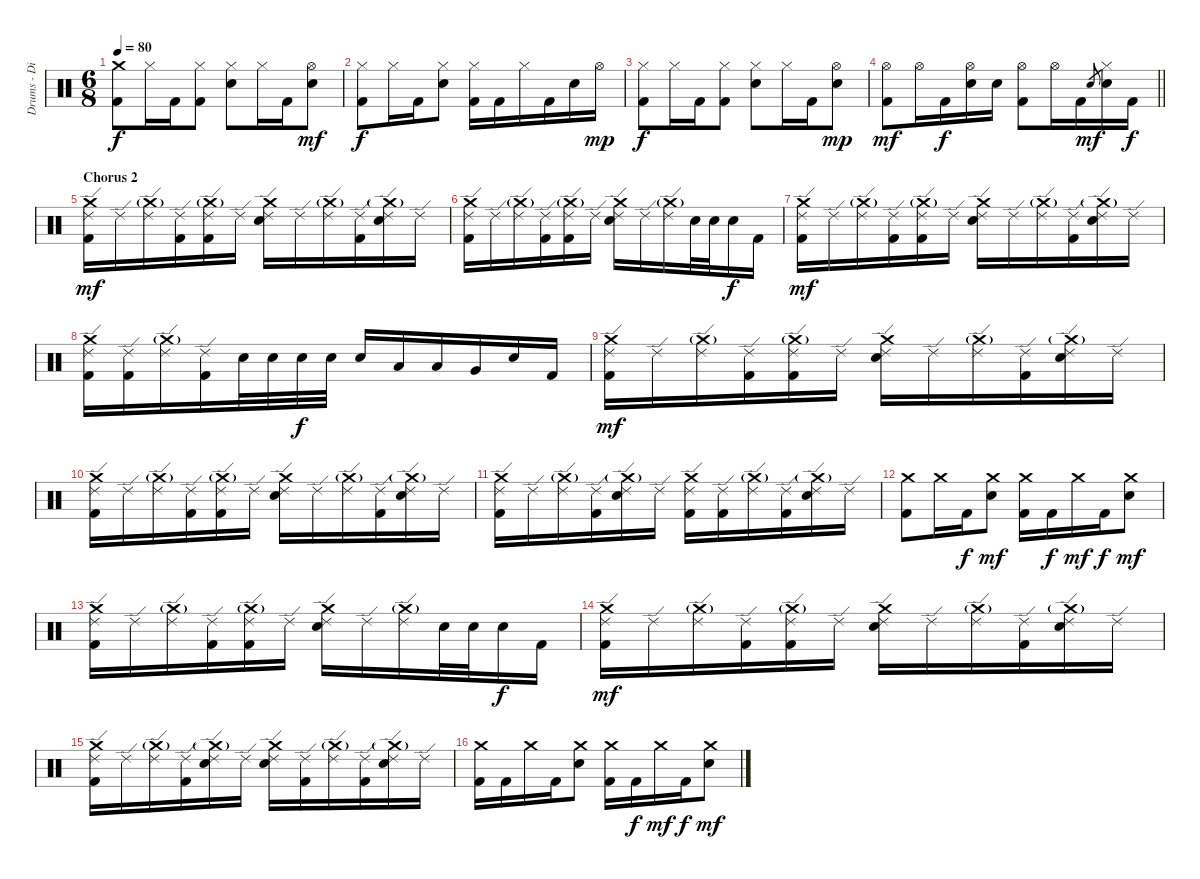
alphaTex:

\track ("Drums - Dino Campanella" "Drums - Di") {instrument percussion}
\staff {score}
\articulation defaults
\ts (6 8)
\tempo 80
\clef neutral
\ks c
("Crash medium (hit)" "Kick (hit) 2").8{dy f} "Hi-Hat (closed)".16 "Kick (hit) 2".16 ("Hi-Hat (closed)" "Kick (hit) 2").8 ("Hi-Hat (closed)" "Electric Snare (hit)").8 "Hi-Hat (closed)".16 "Kick (hit) 2".16 ("Hi-Hat (open)" "Electric Snare (hit)").8{dy mf} |
("Hi-Hat (closed)" "Kick (hit) 2").8{dy f} "Hi-Hat (closed)".16 "Kick (hit) 2".16 ("Hi-Hat (closed)" "Electric Snare (hit)").8 ("Hi-Hat (closed)" "Kick (hit) 2").16 "Kick (hit) 2".16 "Hi-Hat (closed)".16 "Kick (hit) 2".16 "Electric Snare (hit)".16 "Hi-Hat (open)".16{dy mp} |
("Hi-Hat (closed)" "Kick (hit) 2").8{dy f} "Hi-Hat (closed)".16 "Kick (hit) 2".16 ("Hi-Hat (closed)" "Kick (hit) 2").8 ("Hi-Hat (closed)" "Electric Snare (hit)").8 "Hi-Hat (closed)".16 "Kick (hit) 2".16 ("Hi-Hat (open)" "Electric Snare (hit)").8{dy mp} |
\barLineRight lightlight
("Hi-Hat (open)" "Kick (hit) 2").8{dy mf} "Hi-Hat (open)".16 "Kick (hit) 2".16{dy f} ("Hi-Hat (open)" "Electric Snare (hit)").16 "Electric Snare (hit)".16 ("Hi-Hat (open)" "Kick (hit) 2").8 "Hi-Hat (open)".16 "Kick (hit) 2".16 "Electric Snare (hit)".8{gr dy mf} ("Hi-Hat (closed)" "Electric Snare (hit)").16 "Kick (hit) 2".16{dy f} |
\section ("" "Chorus 2")
("Crash medium (hit)" "Ride (edge) 2" "Kick (hit) 2").16{dy mf} "Ride (edge) 2".16 ("Crash medium (hit)"{g} "Ride (edge) 2").16 ("Ride (edge) 2" "Kick (hit) 2").16 ("Crash medium (hit)"{g} "Ride (edge) 2" "Kick (hit) 2").16 "Ride (edge) 2".16 ("Crash medium (hit)" "Ride (edge) 2" "Electric Snare (hit)").16 "Ride (edge) 2".16 ("Crash medium (hit)"{g} "Ride (edge) 2").16 ("Ride (edge) 2" "Kick (hit) 2").16 ("Crash medium (hit)"{g} "Ride (edge) 2" "Electric Snare (hit)").16 "Ride (edge) 2".16 |
("Crash medium (hit)" "Ride (edge) 2" "Kick (hit) 2").16 "Ride (edge) 2".16 ("Crash medium (hit)"{g} "Ride (edge) 2").16 ("Ride (edge) 2" "Kick (hit) 2").16 ("Crash medium (hit)"{g} "Ride (edge) 2" "Kick (hit) 2").16 "Ride (edge) 2".16 ("Crash medium (hit)" "Ride (edge) 2" "Electric Snare (hit)").16 "Ride (edge) 2".16 ("Crash medium (hit)"{g} "Ride (edge) 2").16 "Electric Snare (hit)".32 "Electric Snare (hit)".32 "Electric Snare (hit)".16{dy f} "Kick (hit) 2".16 |
("Crash medium (hit)" "Ride (edge) 2" "Kick (hit) 2").16{dy mf} "Ride (edge) 2".16 ("Crash medium (hit)"{g} "Ride (edge) 2").16 ("Ride (edge) 2" "Kick (hit) 2").16 ("Crash medium (hit)"{g} "Ride (edge) 2" "Kick (hit) 2").16 "Ride (edge) 2".16 ("Crash medium (hit)" "Ride (edge) 2" "Electric Snare (hit)").16 "Ride (edge) 2".16 ("Crash medium (hit)"{g} "Ride (edge) 2").16 ("Ride (edge) 2" "Kick (hit) 2").16 ("Crash medium (hit)"{g} "Ride (edge) 2" "Electric Snare (hit)").16 "Ride (edge) 2".16 |
("Crash medium (hit)" "Ride (edge) 2" "Kick (hit) 2").16 ("Ride (edge) 2" "Kick (hit) 2").16 ("Crash medium (hit)"{g} "Ride (edge) 2").16 ("Ride (edge) 2" "Kick (hit) 2").16 "Electric Snare (hit)".32 "Electric Snare (hit)".32 "Electric Snare (hit)".32{dy f} "Electric Snare (hit)".32 "Electric Snare (hit)".16 "Low Tom (hit)".16 "Low Tom (hit)".16 "Very Low Tom (hit)".16 "Electric Snare (hit)".16 "Kick (hit) 2".16 |
("Crash medium (hit)" "Ride (edge) 2" "Kick (hit) 2").16{dy mf} "Ride (edge) 2".16 ("Crash medium (hit)"{g} "Ride (edge) 2").16 ("Ride (edge) 2" "Kick (hit) 2").16 ("Crash medium (hit)"{g} "Ride (edge) 2" "Kick (hit) 2").16 "Ride (edge) 2".16 ("Crash medium (hit)" "Ride (edge) 2" "Electric Snare (hit)").16 "Ride (edge) 2".16 ("Crash medium (hit)"{g} "Ride (edge) 2").16 ("Ride (edge) 2" "Kick (hit) 2").16 ("Crash medium (hit)"{g} "Ride (edge) 2" "Electric Snare (hit)").16 "Ride (edge) 2".16 |
("Crash medium (hit)" "Ride (edge) 2" "Kick (hit) 2").16 "Ride (edge) 2".16 ("Crash medium (hit)"{g} "Ride (edge) 2").16 ("Ride (edge) 2" "Kick (hit) 2").16 ("Crash medium (hit)"{g} "Ride (edge) 2" "Kick (hit) 2").16 "Ride (edge) 2".16 ("Crash medium (hit)" "Ride (edge) 2" "Electric Snare (hit)").16 "Ride (edge) 2".16 ("Crash medium (hit)"{g} "Ride (edge) 2").16 ("Ride (edge) 2" "Kick (hit) 2").16 ("Crash medium (hit)"{g} "Ride (edge) 2" "Electric Snare (hit)").16 "Ride (edge) 2".16 |
("Crash medium (hit)" "Ride (edge) 2" "Kick (hit) 2").16 "Ride (edge) 2".16 ("Crash medium (hit)"{g} "Ride (edge) 2").16 ("Ride (edge) 2" "Kick (hit) 2").16 ("Crash medium (hit)"{g} "Ride (edge) 2" "Electric Snare (hit)").16 "Ride (edge) 2".16 ("Crash medium (hit)" "Ride (edge) 2" "Kick (hit) 2").16 ("Ride (edge) 2" "Kick (hit) 2").16 ("Crash medium (hit)"{g} "Ride (edge) 2").16 ("Ride (edge) 2" "Kick (hit) 2").16 ("Crash medium (hit)"{g} "Ride (edge) 2" "Electric Snare (hit)").16 "Ride (edge) 2".16 |
("Crash medium (hit)" "Kick (hit) 2").8 "Crash medium (hit)".16 "Kick (hit) 2".16{dy f} ("Crash medium (hit)" "Electric Snare (hit)").8{dy mf} ("Crash medium (hit)" "Kick (hit) 2").16 "Kick (hit) 2".16{dy f} "Crash medium (hit)".16{dy mf} "Kick (hit) 2".16{dy f} ("Crash medium (hit)" "Electric Snare (hit)").8{dy mf} |
("Crash medium (hit)" "Ride (edge) 2" "Kick (hit) 2").16 "Ride (edge) 2".16 ("Crash medium (hit)"{g} "Ride (edge) 2").16 ("Ride (edge) 2" "Kick (hit) 2").16 ("Crash medium (hit)"{g} "Ride (edge) 2" "Kick (hit) 2").16 "Ride (edge) 2".16 ("Crash medium (hit)" "Ride (edge) 2" "Electric Snare (hit)").16 "Ride (edge) 2".16 ("Crash medium (hit)"{g} "Ride (edge) 2").16 "Electric Snare (hit)".32 "Electric Snare (hit)".32 "Electric Snare (hit)".16{dy f} "Kick (hit) 2".16 |
("Crash medium (hit)" "Ride (edge) 2" "Kick (hit) 2").16{dy mf} "Ride (edge) 2".16 ("Crash medium (hit)"{g} "Ride (edge) 2").16 ("Ride (edge) 2" "Kick (hit) 2").16 ("Crash medium (hit)"{g} "Ride (edge) 2" "Kick (hit) 2").16 "Ride (edge) 2".16 ("Crash medium (hit)" "Ride (edge) 2" "Electric Snare (hit)").16 "Ride (edge) 2".16 ("Crash medium (hit)"{g} "Ride (edge) 2").16 ("Ride (edge) 2" "Kick (hit) 2").16 ("Crash medium (hit)"{g} "Ride (edge) 2" "Electric Snare (hit)").16 "Ride (edge) 2".16 |
("Crash medium (hit)" "Ride (edge) 2" "Kick (hit) 2").16 "Ride (edge) 2".16 ("Crash medium (hit)"{g} "Ride (edge) 2").16 ("Ride (edge) 2" "Kick (hit) 2").16 ("Crash medium (hit)"{g} "Ride (edge) 2" "Electric Snare (hit)").16 "Ride (edge) 2".16 ("Crash medium (hit)" "Ride (edge) 2" "Electric Snare (hit)").16 ("Ride (edge) 2" "Kick (hit) 2").16 ("Crash medium (hit)"{g} "Ride (edge) 2").16 ("Ride (edge) 2" "Kick (hit) 2").16 ("Crash medium (hit)"{g} "Ride (edge) 2" "Electric Snare (hit)").16 "Ride (edge) 2".16 |
("Crash medium (hit)" "Kick (hit) 2").16 "Kick (hit) 2".16 "Crash medium (hit)".16 "Kick (hit) 2".16 ("Crash medium (hit)" "Electric Snare (hit)").8 ("Crash medium (hit)" "Kick (hit) 2").16 "Kick (hit) 2".16{dy f} "Crash medium (hit)".16{dy mf} "Kick (hit) 2".16{dy f} ("Crash medium (hit)" "Electric Snare (hit)").8{dy mf}
